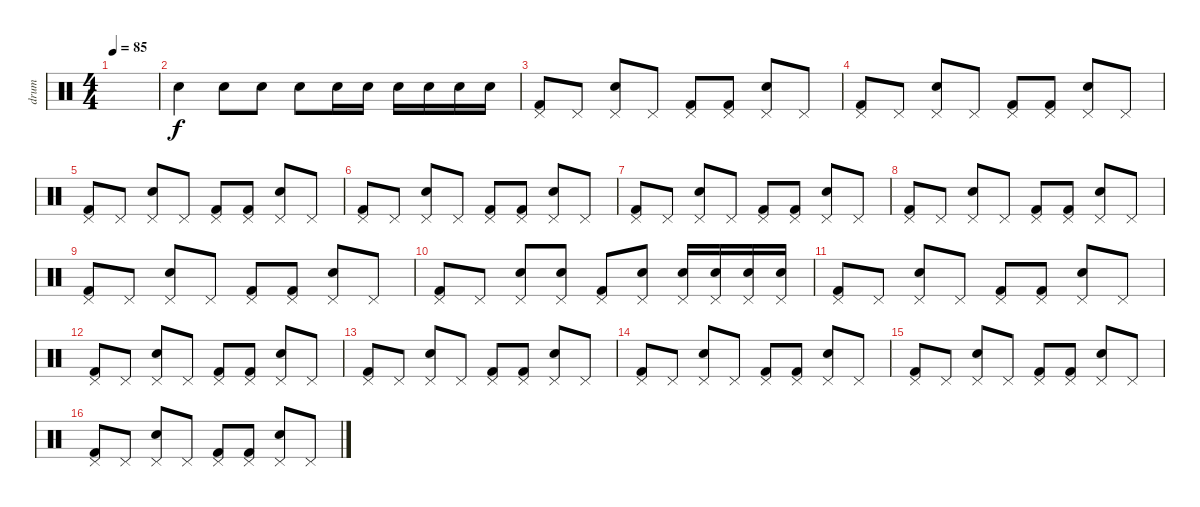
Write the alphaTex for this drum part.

\track ("drum" "drum") {instrument percussion}
\staff {score}
\articulation defaults
\ts (4 4)
\tempo 85
\clef neutral
\ks c
|
"Snare (hit) 2".4 "Snare (hit) 2".8 "Snare (hit) 2".8 "Snare (hit) 2".8 "Snare (hit) 2".16 "Snare (hit) 2".16 "Snare (hit) 2".16 "Snare (hit) 2".16 "Snare (hit) 2".16 "Snare (hit) 2".16 |
("Pedal Hi-Hat (hit)" "Kick (hit) 2").8 "Pedal Hi-Hat (hit)".8 ("Pedal Hi-Hat (hit)" "Snare (hit) 2").8 "Pedal Hi-Hat (hit)".8 ("Pedal Hi-Hat (hit)" "Kick (hit) 2").8 ("Pedal Hi-Hat (hit)" "Kick (hit) 2").8 ("Pedal Hi-Hat (hit)" "Snare (hit) 2").8 "Pedal Hi-Hat (hit)".8 |
("Pedal Hi-Hat (hit)" "Kick (hit) 2").8 "Pedal Hi-Hat (hit)".8 ("Pedal Hi-Hat (hit)" "Snare (hit) 2").8 "Pedal Hi-Hat (hit)".8 ("Pedal Hi-Hat (hit)" "Kick (hit) 2").8 ("Pedal Hi-Hat (hit)" "Kick (hit) 2").8 ("Pedal Hi-Hat (hit)" "Snare (hit) 2").8 "Pedal Hi-Hat (hit)".8 |
("Pedal Hi-Hat (hit)" "Kick (hit) 2").8 "Pedal Hi-Hat (hit)".8 ("Pedal Hi-Hat (hit)" "Snare (hit) 2").8 "Pedal Hi-Hat (hit)".8 ("Pedal Hi-Hat (hit)" "Kick (hit) 2").8 ("Pedal Hi-Hat (hit)" "Kick (hit) 2").8 ("Pedal Hi-Hat (hit)" "Snare (hit) 2").8 "Pedal Hi-Hat (hit)".8 |
("Pedal Hi-Hat (hit)" "Kick (hit) 2").8 "Pedal Hi-Hat (hit)".8 ("Pedal Hi-Hat (hit)" "Snare (hit) 2").8 "Pedal Hi-Hat (hit)".8 ("Pedal Hi-Hat (hit)" "Kick (hit) 2").8 ("Pedal Hi-Hat (hit)" "Kick (hit) 2").8 ("Pedal Hi-Hat (hit)" "Snare (hit) 2").8 "Pedal Hi-Hat (hit)".8 |
("Pedal Hi-Hat (hit)" "Kick (hit) 2").8 "Pedal Hi-Hat (hit)".8 ("Pedal Hi-Hat (hit)" "Snare (hit) 2").8 "Pedal Hi-Hat (hit)".8 ("Pedal Hi-Hat (hit)" "Kick (hit) 2").8 ("Pedal Hi-Hat (hit)" "Kick (hit) 2").8 ("Pedal Hi-Hat (hit)" "Snare (hit) 2").8 "Pedal Hi-Hat (hit)".8 |
("Pedal Hi-Hat (hit)" "Kick (hit) 2").8 "Pedal Hi-Hat (hit)".8 ("Pedal Hi-Hat (hit)" "Snare (hit) 2").8 "Pedal Hi-Hat (hit)".8 ("Pedal Hi-Hat (hit)" "Kick (hit) 2").8 ("Pedal Hi-Hat (hit)" "Kick (hit) 2").8 ("Pedal Hi-Hat (hit)" "Snare (hit) 2").8 "Pedal Hi-Hat (hit)".8 |
("Pedal Hi-Hat (hit)" "Kick (hit) 2").8 "Pedal Hi-Hat (hit)".8 ("Pedal Hi-Hat (hit)" "Snare (hit) 2").8 "Pedal Hi-Hat (hit)".8 ("Pedal Hi-Hat (hit)" "Kick (hit) 2").8 ("Pedal Hi-Hat (hit)" "Kick (hit) 2").8 ("Pedal Hi-Hat (hit)" "Snare (hit) 2").8 "Pedal Hi-Hat (hit)".8 |
("Pedal Hi-Hat (hit)" "Kick (hit) 2").8 "Pedal Hi-Hat (hit)".8 ("Pedal Hi-Hat (hit)" "Snare (hit) 2").8 ("Pedal Hi-Hat (hit)" "Snare (hit) 2").8 ("Pedal Hi-Hat (hit)" "Kick (hit) 2").8 ("Pedal Hi-Hat (hit)" "Snare (hit) 2").8 ("Pedal Hi-Hat (hit)" "Snare (hit) 2").16 ("Pedal Hi-Hat (hit)" "Snare (hit) 2").16 ("Pedal Hi-Hat (hit)" "Snare (hit) 2").16 ("Pedal Hi-Hat (hit)" "Snare (hit) 2").16 |
("Pedal Hi-Hat (hit)" "Kick (hit) 2").8 "Pedal Hi-Hat (hit)".8 ("Pedal Hi-Hat (hit)" "Snare (hit) 2").8 "Pedal Hi-Hat (hit)".8 ("Pedal Hi-Hat (hit)" "Kick (hit) 2").8 ("Pedal Hi-Hat (hit)" "Kick (hit) 2").8 ("Pedal Hi-Hat (hit)" "Snare (hit) 2").8 "Pedal Hi-Hat (hit)".8 |
("Pedal Hi-Hat (hit)" "Kick (hit) 2").8 "Pedal Hi-Hat (hit)".8 ("Pedal Hi-Hat (hit)" "Snare (hit) 2").8 "Pedal Hi-Hat (hit)".8 ("Pedal Hi-Hat (hit)" "Kick (hit) 2").8 ("Pedal Hi-Hat (hit)" "Kick (hit) 2").8 ("Pedal Hi-Hat (hit)" "Snare (hit) 2").8 "Pedal Hi-Hat (hit)".8 |
("Pedal Hi-Hat (hit)" "Kick (hit) 2").8 "Pedal Hi-Hat (hit)".8 ("Pedal Hi-Hat (hit)" "Snare (hit) 2").8 "Pedal Hi-Hat (hit)".8 ("Pedal Hi-Hat (hit)" "Kick (hit) 2").8 ("Pedal Hi-Hat (hit)" "Kick (hit) 2").8 ("Pedal Hi-Hat (hit)" "Snare (hit) 2").8 "Pedal Hi-Hat (hit)".8 |
("Pedal Hi-Hat (hit)" "Kick (hit) 2").8 "Pedal Hi-Hat (hit)".8 ("Pedal Hi-Hat (hit)" "Snare (hit) 2").8 "Pedal Hi-Hat (hit)".8 ("Pedal Hi-Hat (hit)" "Kick (hit) 2").8 ("Pedal Hi-Hat (hit)" "Kick (hit) 2").8 ("Pedal Hi-Hat (hit)" "Snare (hit) 2").8 "Pedal Hi-Hat (hit)".8 |
("Pedal Hi-Hat (hit)" "Kick (hit) 2").8 "Pedal Hi-Hat (hit)".8 ("Pedal Hi-Hat (hit)" "Snare (hit) 2").8 "Pedal Hi-Hat (hit)".8 ("Pedal Hi-Hat (hit)" "Kick (hit) 2").8 ("Pedal Hi-Hat (hit)" "Kick (hit) 2").8 ("Pedal Hi-Hat (hit)" "Snare (hit) 2").8 "Pedal Hi-Hat (hit)".8 |
("Pedal Hi-Hat (hit)" "Kick (hit) 2").8 "Pedal Hi-Hat (hit)".8 ("Pedal Hi-Hat (hit)" "Snare (hit) 2").8 "Pedal Hi-Hat (hit)".8 ("Pedal Hi-Hat (hit)" "Kick (hit) 2").8 ("Pedal Hi-Hat (hit)" "Kick (hit) 2").8 ("Pedal Hi-Hat (hit)" "Snare (hit) 2").8 "Pedal Hi-Hat (hit)".8
